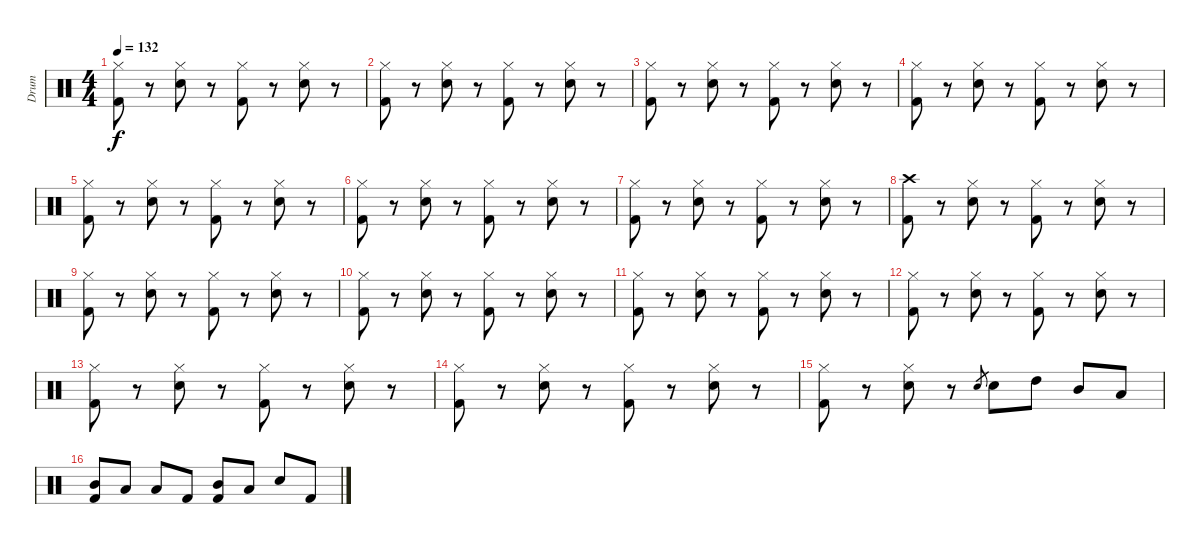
\track ("Drum" "Drum") {instrument percussion}
\staff {score}
\articulation defaults
\ts (4 4)
\tempo 132
\clef neutral
\ks c
("Hi-Hat (closed)" "Kick (hit) 2").8{dy f} r.8 ("Hi-Hat (closed)" "Electric Snare (hit)").8 r.8 ("Hi-Hat (closed)" "Kick (hit) 2").8 r.8 ("Hi-Hat (closed)" "Electric Snare (hit)").8 r.8 |
("Hi-Hat (closed)" "Kick (hit) 2").8 r.8 ("Hi-Hat (closed)" "Electric Snare (hit)").8 r.8 ("Hi-Hat (closed)" "Kick (hit) 2").8 r.8 ("Hi-Hat (closed)" "Electric Snare (hit)").8 r.8 |
("Hi-Hat (closed)" "Kick (hit) 2").8 r.8 ("Hi-Hat (closed)" "Electric Snare (hit)").8 r.8 ("Hi-Hat (closed)" "Kick (hit) 2").8 r.8 ("Hi-Hat (closed)" "Electric Snare (hit)").8 r.8 |
("Hi-Hat (closed)" "Kick (hit) 2").8 r.8 ("Hi-Hat (closed)" "Electric Snare (hit)").8 r.8 ("Hi-Hat (closed)" "Kick (hit) 2").8 r.8 ("Hi-Hat (closed)" "Electric Snare (hit)").8 r.8 |
("Hi-Hat (closed)" "Kick (hit) 2").8 r.8 ("Hi-Hat (closed)" "Electric Snare (hit)").8 r.8 ("Hi-Hat (closed)" "Kick (hit) 2").8 r.8 ("Hi-Hat (closed)" "Electric Snare (hit)").8 r.8 |
("Hi-Hat (closed)" "Kick (hit) 2").8 r.8 ("Hi-Hat (closed)" "Electric Snare (hit)").8 r.8 ("Hi-Hat (closed)" "Kick (hit) 2").8 r.8 ("Hi-Hat (closed)" "Electric Snare (hit)").8 r.8 |
("Hi-Hat (closed)" "Kick (hit) 2").8 r.8 ("Hi-Hat (closed)" "Electric Snare (hit)").8 r.8 ("Hi-Hat (closed)" "Kick (hit) 2").8 r.8 ("Hi-Hat (closed)" "Electric Snare (hit)").8 r.8 |
("Crash high (hit)" "Kick (hit) 2").8 r.8 ("Hi-Hat (closed)" "Electric Snare (hit)").8 r.8 ("Hi-Hat (closed)" "Kick (hit) 2").8 r.8 ("Hi-Hat (closed)" "Electric Snare (hit)").8 r.8 |
("Hi-Hat (closed)" "Kick (hit) 2").8 r.8 ("Hi-Hat (closed)" "Electric Snare (hit)").8 r.8 ("Hi-Hat (closed)" "Kick (hit) 2").8 r.8 ("Hi-Hat (closed)" "Electric Snare (hit)").8 r.8 |
("Hi-Hat (closed)" "Kick (hit) 2").8 r.8 ("Hi-Hat (closed)" "Electric Snare (hit)").8 r.8 ("Hi-Hat (closed)" "Kick (hit) 2").8 r.8 ("Hi-Hat (closed)" "Electric Snare (hit)").8 r.8 |
("Hi-Hat (closed)" "Kick (hit) 2").8 r.8 ("Hi-Hat (closed)" "Electric Snare (hit)").8 r.8 ("Hi-Hat (closed)" "Kick (hit) 2").8 r.8 ("Hi-Hat (closed)" "Electric Snare (hit)").8 r.8 |
("Hi-Hat (closed)" "Kick (hit) 2").8 r.8 ("Hi-Hat (closed)" "Electric Snare (hit)").8 r.8 ("Hi-Hat (closed)" "Kick (hit) 2").8 r.8 ("Hi-Hat (closed)" "Electric Snare (hit)").8 r.8 |
("Hi-Hat (closed)" "Kick (hit) 2").8 r.8 ("Hi-Hat (closed)" "Electric Snare (hit)").8 r.8 ("Hi-Hat (closed)" "Kick (hit) 2").8 r.8 ("Hi-Hat (closed)" "Electric Snare (hit)").8 r.8 |
("Hi-Hat (closed)" "Kick (hit) 2").8 r.8 ("Hi-Hat (closed)" "Electric Snare (hit)").8 r.8 ("Hi-Hat (closed)" "Kick (hit) 2").8 r.8 ("Hi-Hat (closed)" "Electric Snare (hit)").8 r.8 |
("Hi-Hat (closed)" "Kick (hit) 2").8 r.8 ("Hi-Hat (closed)" "Electric Snare (hit)").8 r.8 "Electric Snare (hit)".8{gr} "Electric Snare (hit)".8 "High Tom (hit)".8 "Mid Tom (hit)".8 "Low Tom (hit)".8 |
("Mid Tom (hit)" "Kick (hit) 2").8 "Low Tom (hit)".8 "Low Floor Tom (hit)".8 "Kick (hit) 2".8 ("Mid Tom (hit)" "Kick (hit) 2").8 "Low Tom (hit)".8 "Electric Snare (hit)".8 "Kick (hit) 2".8
